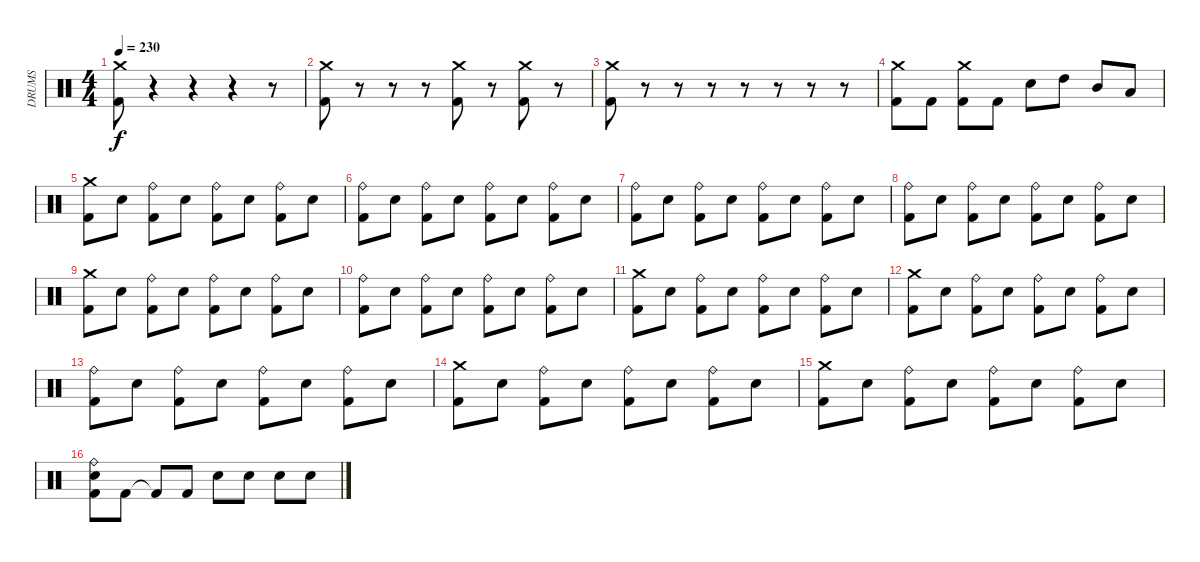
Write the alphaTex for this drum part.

\track ("DRUMS" "DRUMS") {instrument percussion}
\staff {score}
\articulation defaults
\ts (4 4)
\tempo 230
\clef neutral
\ks c
("Crash medium (hit)" "Kick (hit) 2").8{dy f} r.4 r.4 r.4 r.8 |
("Crash medium (hit)" "Kick (hit) 2").8 r.8 r.8 r.8 ("Crash medium (hit)" "Kick (hit) 2").8 r.8 ("Crash medium (hit)" "Kick (hit) 2").8 r.8 |
("Crash medium (hit)" "Kick (hit) 2").8 r.8 r.8 r.8 r.8 r.8 r.8 r.8 |
("Crash medium (hit)" "Kick (hit) 2").8 "Kick (hit) 2".8 ("Crash medium (hit)" "Kick (hit) 2").8 "Kick (hit) 2".8 "Snare (hit) 2".8 "High Tom (hit)".8 "Mid Tom (hit)".8 "Low Tom (hit)".8 |
("Crash medium (hit)" "Kick (hit) 2").8 "Snare (hit) 2".8 ("Ride (bell)" "Kick (hit) 2").8 "Snare (hit) 2".8 ("Ride (bell)" "Kick (hit) 2").8 "Snare (hit) 2".8 ("Ride (bell)" "Kick (hit) 2").8 "Snare (hit) 2".8 |
("Ride (bell)" "Kick (hit) 2").8 "Snare (hit) 2".8 ("Ride (bell)" "Kick (hit) 2").8 "Snare (hit) 2".8 ("Ride (bell)" "Kick (hit) 2").8 "Snare (hit) 2".8 ("Ride (bell)" "Kick (hit) 2").8 "Snare (hit) 2".8 |
("Ride (bell)" "Kick (hit) 2").8 "Snare (hit) 2".8 ("Ride (bell)" "Kick (hit) 2").8 "Snare (hit) 2".8 ("Ride (bell)" "Kick (hit) 2").8 "Snare (hit) 2".8 ("Ride (bell)" "Kick (hit) 2").8 "Snare (hit) 2".8 |
("Ride (bell)" "Kick (hit) 2").8 "Snare (hit) 2".8 ("Ride (bell)" "Kick (hit) 2").8 "Snare (hit) 2".8 ("Ride (bell)" "Kick (hit) 2").8 "Snare (hit) 2".8 ("Ride (bell)" "Kick (hit) 2").8 "Snare (hit) 2".8 |
("Crash medium (hit)" "Kick (hit) 2").8 "Snare (hit) 2".8 ("Ride (bell)" "Kick (hit) 2").8 "Snare (hit) 2".8 ("Ride (bell)" "Kick (hit) 2").8 "Snare (hit) 2".8 ("Ride (bell)" "Kick (hit) 2").8 "Snare (hit) 2".8 |
("Ride (bell)" "Kick (hit) 2").8 "Snare (hit) 2".8 ("Ride (bell)" "Kick (hit) 2").8 "Snare (hit) 2".8 ("Ride (bell)" "Kick (hit) 2").8 "Snare (hit) 2".8 ("Ride (bell)" "Kick (hit) 2").8 "Snare (hit) 2".8 |
("Crash medium (hit)" "Kick (hit) 2").8 "Snare (hit) 2".8 ("Ride (bell)" "Kick (hit) 2").8 "Snare (hit) 2".8 ("Ride (bell)" "Kick (hit) 2").8 "Snare (hit) 2".8 ("Ride (bell)" "Kick (hit) 2").8 "Snare (hit) 2".8 |
("Crash medium (hit)" "Kick (hit) 2").8 "Snare (hit) 2".8 ("Ride (bell)" "Kick (hit) 2").8 "Snare (hit) 2".8 ("Ride (bell)" "Kick (hit) 2").8 "Snare (hit) 2".8 ("Ride (bell)" "Kick (hit) 2").8 "Snare (hit) 2".8 |
("Ride (bell)" "Kick (hit) 2").8 "Snare (hit) 2".8 ("Ride (bell)" "Kick (hit) 2").8 "Snare (hit) 2".8 ("Ride (bell)" "Kick (hit) 2").8 "Snare (hit) 2".8 ("Ride (bell)" "Kick (hit) 2").8 "Snare (hit) 2".8 |
("Crash medium (hit)" "Kick (hit) 2").8 "Snare (hit) 2".8 ("Ride (bell)" "Kick (hit) 2").8 "Snare (hit) 2".8 ("Ride (bell)" "Kick (hit) 2").8 "Snare (hit) 2".8 ("Ride (bell)" "Kick (hit) 2").8 "Snare (hit) 2".8 |
("Crash medium (hit)" "Kick (hit) 2").8 "Snare (hit) 2".8 ("Ride (bell)" "Kick (hit) 2").8 "Snare (hit) 2".8 ("Ride (bell)" "Kick (hit) 2").8 "Snare (hit) 2".8 ("Ride (bell)" "Kick (hit) 2").8 "Snare (hit) 2".8 |
("Ride (bell)" "Snare (hit) 2" "Kick (hit) 2").8 "Kick (hit) 2".8 "Kick (hit) 2"{t}.8 "Kick (hit) 2".8 "Snare (hit) 2".8 "Snare (hit) 2".8 "Snare (hit) 2".8 "Snare (hit) 2".8
